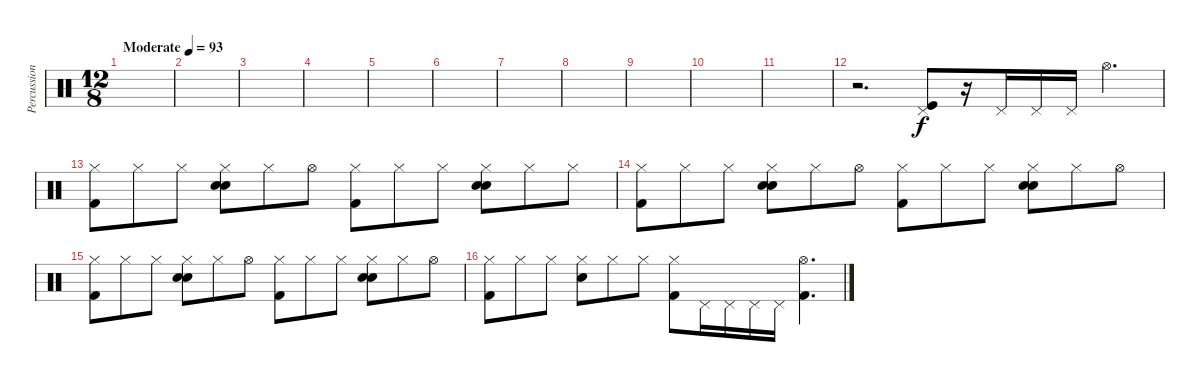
\track ("Percussion" "Percussion") {instrument percussion}
\staff {score}
\articulation defaults
\ts (12 8)
\tempo (93 "Moderate")
\clef neutral
\ks c
|
|
|
|
|
|
|
|
|
|
|
r.2{d} ("Pedal Hi-Hat (hit)" "Kick (hit)").8 r.16 "Pedal Hi-Hat (hit)".16 "Pedal Hi-Hat (hit)".16 "Pedal Hi-Hat (hit)".16 "Hi-Hat (open)".4{d} |
("Hi-Hat (closed)" "Kick (hit) 2").8 "Hi-Hat (closed)".8 "Hi-Hat (closed)".8 ("Hand Clap (hit)" "Hi-Hat (closed)" "Snare (hit) 2").8 "Hi-Hat (closed)".8 "Hi-Hat (open)".8 ("Hi-Hat (closed)" "Kick (hit) 2").8 "Hi-Hat (closed)".8 "Hi-Hat (closed)".8 ("Hand Clap (hit)" "Hi-Hat (closed)" "Snare (hit) 2").8 "Hi-Hat (closed)".8 "Hi-Hat (closed)".8 |
("Hi-Hat (closed)" "Kick (hit) 2").8 "Hi-Hat (closed)".8 "Hi-Hat (closed)".8 ("Hand Clap (hit)" "Hi-Hat (closed)" "Snare (hit) 2").8 "Hi-Hat (closed)".8 "Hi-Hat (open)".8 ("Hi-Hat (closed)" "Kick (hit) 2").8 "Hi-Hat (closed)".8 "Hi-Hat (closed)".8 ("Hand Clap (hit)" "Hi-Hat (closed)" "Snare (hit) 2").8 "Hi-Hat (closed)".8 "Hi-Hat (open)".8 |
("Hi-Hat (closed)" "Kick (hit) 2").8 "Hi-Hat (closed)".8 "Hi-Hat (closed)".8 ("Hand Clap (hit)" "Hi-Hat (closed)" "Snare (hit) 2").8 "Hi-Hat (closed)".8 "Hi-Hat (open)".8 ("Hi-Hat (closed)" "Kick (hit) 2").8 "Hi-Hat (closed)".8 "Hi-Hat (closed)".8 ("Hand Clap (hit)" "Hi-Hat (closed)" "Snare (hit) 2").8 "Hi-Hat (closed)".8 "Hi-Hat (open)".8 |
("Hi-Hat (closed)" "Kick (hit) 2").8 "Hi-Hat (closed)".8 "Hi-Hat (closed)".8 ("Hi-Hat (closed)" "Snare (hit) 2").8 "Hi-Hat (closed)".8 "Hi-Hat (closed)".8 ("Hi-Hat (closed)" "Kick (hit) 2").8 "Pedal Hi-Hat (hit)".16 "Pedal Hi-Hat (hit)".16 "Pedal Hi-Hat (hit)".16 "Pedal Hi-Hat (hit)".16 ("Kick (hit) 2" "Hi-Hat (open)").4{d}
